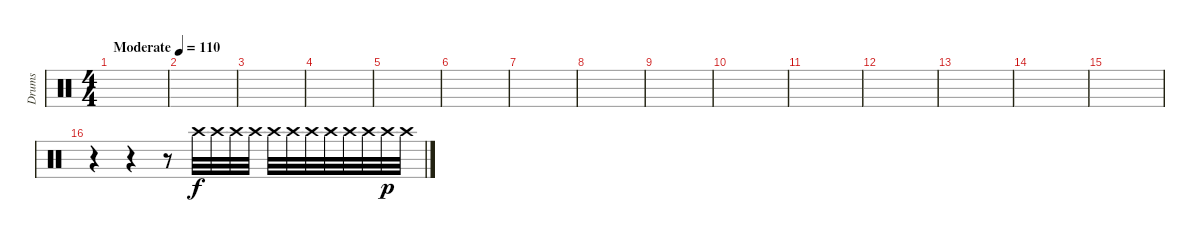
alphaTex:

\track ("Drums" "Drums") {instrument percussion}
\staff {score}
\articulation defaults
\ts (4 4)
\tempo (110 "Moderate")
\clef neutral
\ks c
|
|
|
|
|
|
|
|
|
|
|
|
|
|
|
r.4 r.4 r.8 "Crash high (hit)".32 "Crash high (hit)".32 "Crash high (hit)".32 "Crash high (hit)".32 "Crash high (hit)".32 "Crash high (hit)".32 "Crash high (hit)".32 "Crash high (hit)".32 "Crash high (hit)".32 "Crash high (hit)".32 "Crash high (hit)".32{dy p} "Crash high (hit)".32
